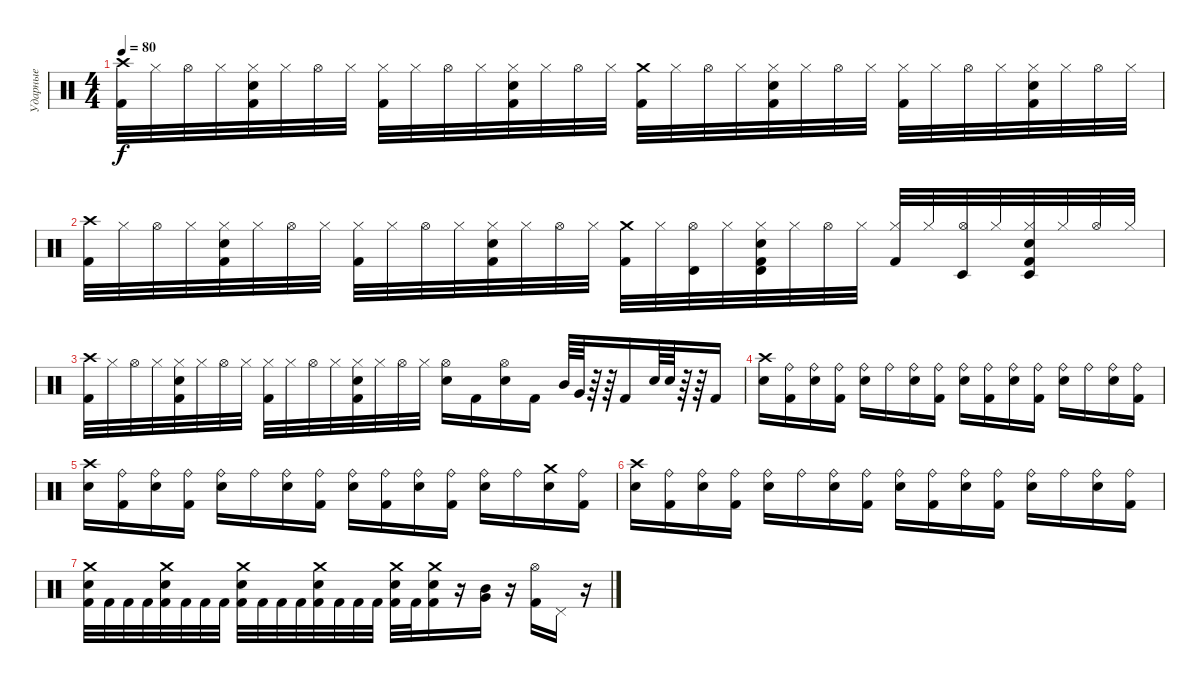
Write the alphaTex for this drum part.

\track ("Ударные" "Ударные") {instrument percussion}
\staff {score}
\articulation defaults
\ts (4 4)
\tempo 80
\clef neutral
\ks c
("Crash high (hit)" "Kick (hit) 2").32{dy f} "Hi-Hat (closed)".32 "Hi-Hat (open)".32 "Hi-Hat (closed)".32 ("Hi-Hat (closed)" "Snare (hit) 2" "Kick (hit) 2").32 "Hi-Hat (closed)".32 "Hi-Hat (open)".32 "Hi-Hat (closed)".32 ("Hi-Hat (closed)" "Kick (hit) 2").32 "Hi-Hat (closed)".32 "Hi-Hat (open)".32 "Hi-Hat (closed)".32 ("Hi-Hat (closed)" "Snare (hit) 2" "Kick (hit) 2").32 "Hi-Hat (closed)".32 "Hi-Hat (open)".32 "Hi-Hat (closed)".32 ("Crash medium (hit)" "Kick (hit) 2").32 "Hi-Hat (closed)".32 "Hi-Hat (open)".32 "Hi-Hat (closed)".32 ("Hi-Hat (closed)" "Snare (hit) 2" "Kick (hit) 2").32 "Hi-Hat (closed)".32 "Hi-Hat (open)".32 "Hi-Hat (closed)".32 ("Hi-Hat (closed)" "Kick (hit) 2").32 "Hi-Hat (closed)".32 "Hi-Hat (open)".32 "Hi-Hat (closed)".32 ("Hi-Hat (closed)" "Snare (hit) 2" "Kick (hit) 2").32 "Hi-Hat (closed)".32 "Hi-Hat (open)".32 "Hi-Hat (closed)".32 |
("Crash high (hit)" "Kick (hit) 2").32 "Hi-Hat (closed)".32 "Hi-Hat (open)".32 "Hi-Hat (closed)".32 ("Hi-Hat (closed)" "Snare (hit) 2" "Kick (hit) 2").32 "Hi-Hat (closed)".32 "Hi-Hat (open)".32 "Hi-Hat (closed)".32 ("Hi-Hat (closed)" "Kick (hit) 2").32 "Hi-Hat (closed)".32 "Hi-Hat (open)".32 "Hi-Hat (closed)".32 ("Hi-Hat (closed)" "Snare (hit) 2" "Kick (hit) 2").32 "Hi-Hat (closed)".32 "Hi-Hat (open)".32 "Hi-Hat (closed)".32 ("Crash medium (hit)" "Kick (hit) 2").32 "Hi-Hat (closed)".32 ("Hi-Hat (open)" "Timbale high (hit)").32 "Hi-Hat (closed)".32 ("Hi-Hat (closed)" "Snare (hit) 2" "Kick (hit) 2" "Timbale high (hit)").32 "Hi-Hat (closed)".32 "Hi-Hat (open)".32 "Hi-Hat (closed)".32 ("Hi-Hat (closed)" "Kick (hit) 2").32 "Hi-Hat (closed)".32 ("Hi-Hat (open)" "Timbale low (hit)").32 "Hi-Hat (closed)".32 ("Hi-Hat (closed)" "Snare (hit) 2" "Kick (hit) 2" "Timbale low (hit)").32 "Hi-Hat (closed)".32 "Hi-Hat (open)".32 "Hi-Hat (closed)".32 |
("Crash high (hit)" "Kick (hit) 2").32 "Hi-Hat (closed)".32 "Hi-Hat (open)".32 "Hi-Hat (closed)".32 ("Hi-Hat (closed)" "Snare (hit) 2" "Kick (hit) 2").32 "Hi-Hat (closed)".32 "Hi-Hat (open)".32 "Hi-Hat (closed)".32 ("Hi-Hat (closed)" "Kick (hit) 2").32 "Hi-Hat (closed)".32 "Hi-Hat (open)".32 "Hi-Hat (closed)".32 ("Hi-Hat (closed)" "Snare (hit) 2" "Kick (hit) 2").32 "Hi-Hat (closed)".32 "Hi-Hat (open)".32 "Hi-Hat (closed)".32 ("Snare (hit) 2" "Hi-Hat (open)").16 "Kick (hit) 2".16 ("Snare (hit) 2" "Hi-Hat (open)").16 "Kick (hit) 2".16 "Mid Tom (hit)".64 "Very Low Tom (hit)".64 r.64 r.64 "Kick (hit) 2".16 "Snare (hit) 2".64 "Snare (hit) 2".64 r.64 r.64 "Kick (hit) 2".16 |
("Crash high (hit)" "Snare (hit) 2").16 ("Ride (bell)" "Kick (hit) 2").16 ("Ride (bell)" "Snare (hit) 2").16 ("Ride (bell)" "Kick (hit) 2").16 ("Ride (bell)" "Snare (hit) 2").16 "Ride (bell)".16 ("Ride (bell)" "Snare (hit) 2").16 ("Ride (bell)" "Kick (hit) 2").16 ("Ride (bell)" "Snare (hit) 2").16 ("Ride (bell)" "Kick (hit) 2").16 ("Ride (bell)" "Snare (hit) 2").16 ("Ride (bell)" "Kick (hit) 2").16 ("Ride (bell)" "Snare (hit) 2").16 "Ride (bell)".16 ("Ride (bell)" "Snare (hit) 2").16 ("Ride (bell)" "Kick (hit) 2").16 |
("Crash high (hit)" "Snare (hit) 2").16 ("Ride (bell)" "Kick (hit) 2").16 ("Ride (bell)" "Snare (hit) 2").16 ("Ride (bell)" "Kick (hit) 2").16 ("Ride (bell)" "Snare (hit) 2").16 "Ride (bell)".16 ("Ride (bell)" "Snare (hit) 2").16 ("Ride (bell)" "Kick (hit) 2").16 ("Ride (bell)" "Snare (hit) 2").16 ("Ride (bell)" "Kick (hit) 2").16 ("Ride (bell)" "Snare (hit) 2").16 ("Ride (bell)" "Kick (hit) 2").16 ("Ride (bell)" "Snare (hit) 2").16 "Ride (bell)".16 ("Crash medium (hit)" "Snare (hit) 2").16 ("Ride (bell)" "Kick (hit) 2").16 |
("Crash high (hit)" "Snare (hit) 2").16 ("Ride (bell)" "Kick (hit) 2").16 ("Ride (bell)" "Snare (hit) 2").16 ("Ride (bell)" "Kick (hit) 2").16 ("Ride (bell)" "Snare (hit) 2").16 "Ride (bell)".16 ("Ride (bell)" "Snare (hit) 2").16 ("Ride (bell)" "Kick (hit) 2").16 ("Ride (bell)" "Snare (hit) 2").16 ("Ride (bell)" "Kick (hit) 2").16 ("Ride (bell)" "Snare (hit) 2").16 ("Ride (bell)" "Kick (hit) 2").16 ("Ride (bell)" "Snare (hit) 2").16 "Ride (bell)".16 ("Ride (bell)" "Snare (hit) 2").16 ("Ride (bell)" "Kick (hit) 2").16 |
("Crash medium (hit)" "Snare (hit) 2" "Kick (hit) 2").32 "Kick (hit) 2".32 "Kick (hit) 2".32 "Kick (hit) 2".32 ("Crash medium (hit)" "Snare (hit) 2" "Kick (hit) 2").32 "Kick (hit) 2".32 "Kick (hit) 2".32 "Kick (hit) 2".32 ("Crash medium (hit)" "Snare (hit) 2" "Kick (hit) 2").32 "Kick (hit) 2".32 "Kick (hit) 2".32 "Kick (hit) 2".32 ("Crash medium (hit)" "Snare (hit) 2" "Kick (hit) 2").32 "Kick (hit) 2".32 "Kick (hit) 2".32 "Kick (hit) 2".32 ("Crash medium (hit)" "Snare (hit) 2" "Kick (hit) 2").32 "Kick (hit) 2".32 ("Crash medium (hit)" "Snare (hit) 2" "Kick (hit) 2").16 r.16 ("Mid Tom (hit)" "Very Low Tom (hit)").16 r.16 ("Hi-Hat (open)" "Kick (hit) 2").16 "Pedal Hi-Hat (hit)".16 r.16
